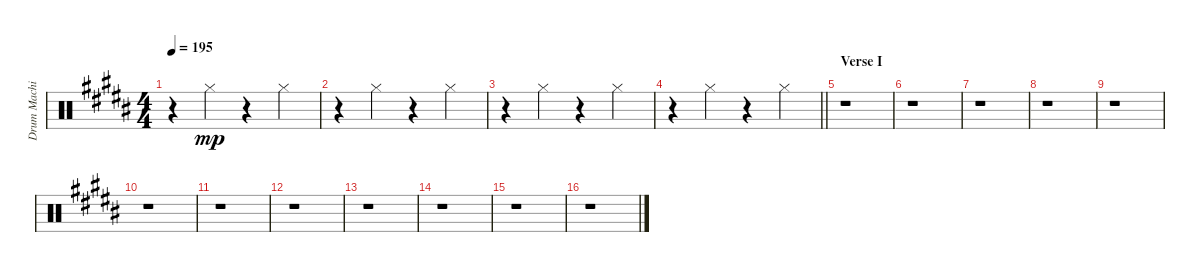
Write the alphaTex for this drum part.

\track ("Drum Machine" "Drum Machi") {instrument percussion}
\staff {score}
\articulation defaults
\ts (4 4)
\tempo 195
\clef neutral
\ks b
r.4{dy mp} "Hi-Hat (closed)".4 r.4 "Hi-Hat (closed)".4 |
r.4 "Hi-Hat (closed)".4 r.4 "Hi-Hat (closed)".4 |
r.4 "Hi-Hat (closed)".4 r.4 "Hi-Hat (closed)".4 |
\barLineRight lightlight
r.4 "Hi-Hat (closed)".4 r.4 "Hi-Hat (closed)".4 |
\section ("" "Verse I")
r.1 |
r.1 |
r.1 |
r.1 |
r.1 |
r.1 |
r.1 |
r.1 |
r.1 |
r.1 |
r.1 |
r.1
